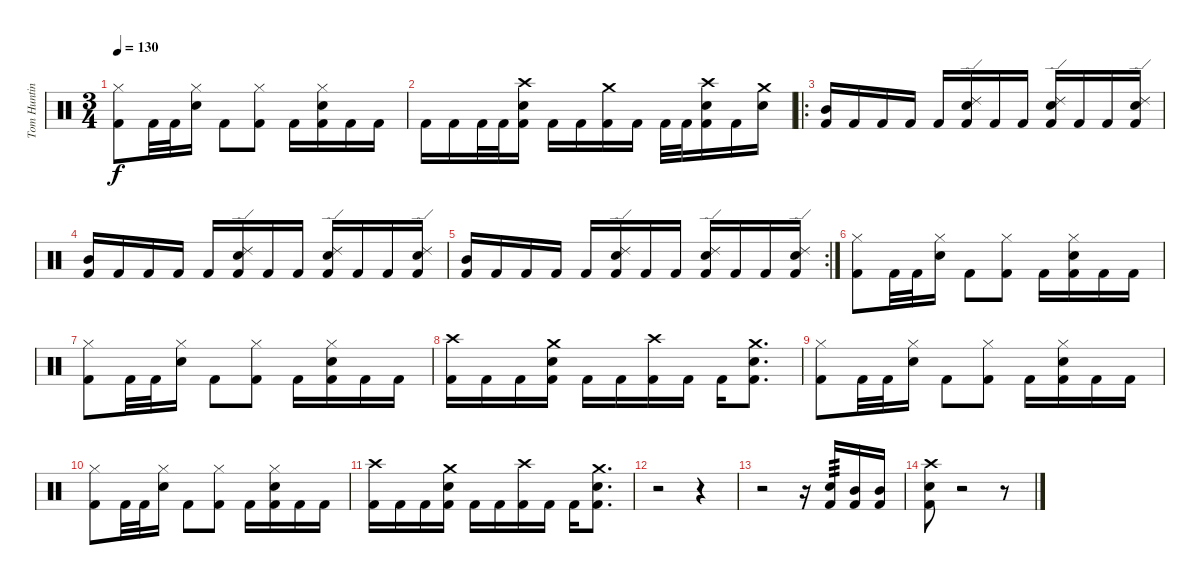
\track ("Tom Hunting" "Tom Huntin") {instrument percussion}
\staff {score}
\articulation defaults
\ts (3 4)
\tempo 130
\clef neutral
\ks c
("Hi-Hat (closed)" "Kick (hit) 2").8{dy f} "Kick (hit) 2".32 "Kick (hit) 2".32 ("Hi-Hat (closed)" "Electric Snare (hit)").16 "Kick (hit) 2".8 ("Hi-Hat (closed)" "Kick (hit) 2").8 "Kick (hit) 2".16 ("Hi-Hat (closed)" "Electric Snare (hit)" "Kick (hit) 2").16 "Kick (hit) 2".16 "Kick (hit) 2".16 |
"Kick (hit) 2".16 "Kick (hit) 2".16 "Kick (hit) 2".32 "Kick (hit) 2".32 ("Crash high (hit)" "Electric Snare (hit)" "Kick (hit) 2").16 "Kick (hit) 2".16 "Kick (hit) 2".16 ("Crash medium (hit)" "Kick (hit) 2").16 "Kick (hit) 2".16 "Kick (hit) 2".32 "Kick (hit) 2".32 ("Crash high (hit)" "Electric Snare (hit)" "Kick (hit) 2").16 "Kick (hit) 2".16 ("Crash medium (hit)" "Electric Snare (hit)").16 |
\ro
("Mid Tom (hit)" "Kick (hit) 2").16 "Kick (hit) 2".16 "Kick (hit) 2".16 "Kick (hit) 2".16 "Kick (hit) 2".16 ("Ride (edge) 2" "Electric Snare (hit)" "Kick (hit) 2").16 "Kick (hit) 2".16 "Kick (hit) 2".16 ("Ride (edge) 2" "Electric Snare (hit)" "Kick (hit) 2").16 "Kick (hit) 2".16 "Kick (hit) 2".16 ("Ride (edge) 2" "Electric Snare (hit)" "Kick (hit) 2").16 |
("Mid Tom (hit)" "Kick (hit) 2").16 "Kick (hit) 2".16 "Kick (hit) 2".16 "Kick (hit) 2".16 "Kick (hit) 2".16 ("Ride (edge) 2" "Electric Snare (hit)" "Kick (hit) 2").16 "Kick (hit) 2".16 "Kick (hit) 2".16 ("Ride (edge) 2" "Electric Snare (hit)" "Kick (hit) 2").16 "Kick (hit) 2".16 "Kick (hit) 2".16 ("Ride (edge) 2" "Electric Snare (hit)" "Kick (hit) 2").16 |
\rc 2
("Mid Tom (hit)" "Kick (hit) 2").16 "Kick (hit) 2".16 "Kick (hit) 2".16 "Kick (hit) 2".16 "Kick (hit) 2".16 ("Ride (edge) 2" "Electric Snare (hit)" "Kick (hit) 2").16 "Kick (hit) 2".16 "Kick (hit) 2".16 ("Ride (edge) 2" "Electric Snare (hit)" "Kick (hit) 2").16 "Kick (hit) 2".16 "Kick (hit) 2".16 ("Ride (edge) 2" "Electric Snare (hit)" "Kick (hit) 2").16 |
("Hi-Hat (closed)" "Kick (hit) 2").8 "Kick (hit) 2".32 "Kick (hit) 2".32 ("Hi-Hat (closed)" "Electric Snare (hit)").16 "Kick (hit) 2".8 ("Hi-Hat (closed)" "Kick (hit) 2").8 "Kick (hit) 2".16 ("Hi-Hat (closed)" "Electric Snare (hit)" "Kick (hit) 2").16 "Kick (hit) 2".16 "Kick (hit) 2".16 |
("Hi-Hat (closed)" "Kick (hit) 2").8 "Kick (hit) 2".32 "Kick (hit) 2".32 ("Hi-Hat (closed)" "Electric Snare (hit)").16 "Kick (hit) 2".8 ("Hi-Hat (closed)" "Kick (hit) 2").8 "Kick (hit) 2".16 ("Hi-Hat (closed)" "Electric Snare (hit)" "Kick (hit) 2").16 "Kick (hit) 2".16 "Kick (hit) 2".16 |
("Crash high (hit)" "Kick (hit) 2").16 "Kick (hit) 2".16 "Kick (hit) 2".16 ("Crash medium (hit)" "Electric Snare (hit)" "Kick (hit) 2").16 "Kick (hit) 2".16 "Kick (hit) 2".16 ("Crash high (hit)" "Kick (hit) 2").16 "Kick (hit) 2".16 "Kick (hit) 2".16 ("Crash medium (hit)" "Electric Snare (hit)" "Kick (hit) 2").8{d} |
("Hi-Hat (closed)" "Kick (hit) 2").8 "Kick (hit) 2".32 "Kick (hit) 2".32 ("Hi-Hat (closed)" "Electric Snare (hit)").16 "Kick (hit) 2".8 ("Hi-Hat (closed)" "Kick (hit) 2").8 "Kick (hit) 2".16 ("Hi-Hat (closed)" "Electric Snare (hit)" "Kick (hit) 2").16 "Kick (hit) 2".16 "Kick (hit) 2".16 |
("Hi-Hat (closed)" "Kick (hit) 2").8 "Kick (hit) 2".32 "Kick (hit) 2".32 ("Hi-Hat (closed)" "Electric Snare (hit)").16 "Kick (hit) 2".8 ("Hi-Hat (closed)" "Kick (hit) 2").8 "Kick (hit) 2".16 ("Hi-Hat (closed)" "Electric Snare (hit)" "Kick (hit) 2").16 "Kick (hit) 2".16 "Kick (hit) 2".16 |
("Crash high (hit)" "Kick (hit) 2").16 "Kick (hit) 2".16 "Kick (hit) 2".16 ("Crash medium (hit)" "Electric Snare (hit)" "Kick (hit) 2").16 "Kick (hit) 2".16 "Kick (hit) 2".16 ("Crash high (hit)" "Kick (hit) 2").16 "Kick (hit) 2".16 "Kick (hit) 2".16 ("Crash medium (hit)" "Electric Snare (hit)" "Kick (hit) 2").8{d} |
r.2 r.4 |
r.2 r.16 ("Electric Snare (hit)" "Kick (hit) 2").16{tp 3} ("Mid Tom (hit)" "Kick (hit) 2").16 ("Mid Tom (hit)" "Kick (hit) 2").16 |
("Crash high (hit)" "Electric Snare (hit)" "Kick (hit) 2").8 r.2 r.8
